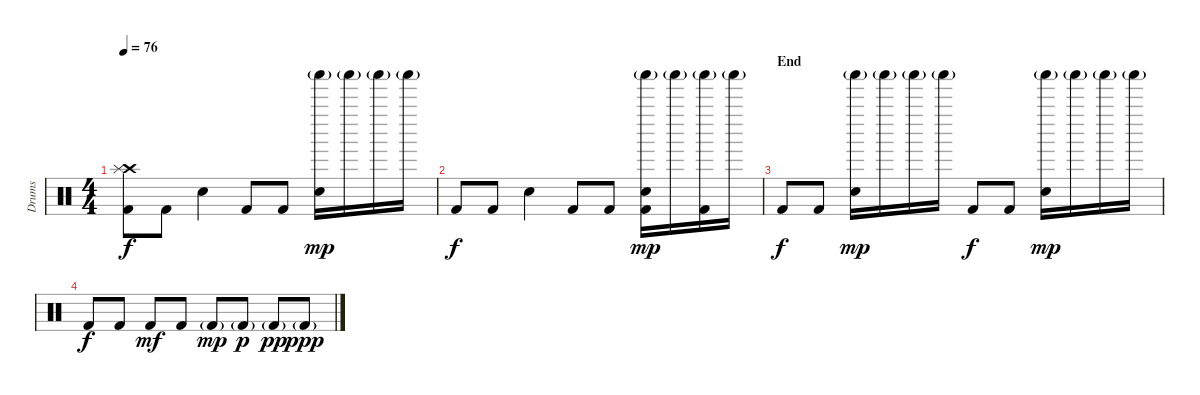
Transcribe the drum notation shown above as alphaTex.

\track ("Drums" "Drums") {instrument percussion}
\staff {score}
\articulation defaults
\ts (4 4)
\tempo 76
\clef neutral
\ks c
("Crash high (hit)" "Splash (hit)" "Kick (hit) 2").8{dy f} "Kick (hit) 2".8 "Electric Snare (hit)".4 "Kick (hit) 2".8 "Kick (hit) 2".8 ("Shaker (hit)"{g} "Electric Snare (hit)").16{dy mp} "Shaker (hit)"{g}.16 "Shaker (hit)"{g}.16 "Shaker (hit)"{g}.16 |
"Kick (hit) 2".8{dy f} "Kick (hit) 2".8 "Electric Snare (hit)".4 "Kick (hit) 2".8 "Kick (hit) 2".8 ("Shaker (hit)"{g} "Electric Snare (hit)" "Kick (hit) 2").16{dy mp} "Shaker (hit)"{g}.16 ("Shaker (hit)"{g} "Kick (hit) 2").16 "Shaker (hit)"{g}.16 |
\section ("" "End")
"Kick (hit) 2".8{dy f} "Kick (hit) 2".8 ("Shaker (hit)"{g} "Electric Snare (hit)").16{dy mp} "Shaker (hit)"{g}.16 "Shaker (hit)"{g}.16 "Shaker (hit)"{g}.16 "Kick (hit) 2".8{dy f} "Kick (hit) 2".8 ("Shaker (hit)"{g} "Electric Snare (hit)").16{dy mp} "Shaker (hit)"{g}.16 "Shaker (hit)"{g}.16 "Shaker (hit)"{g}.16 |
"Kick (hit) 2".8{dy f} "Kick (hit) 2".8 "Kick (hit) 2".8{dy mf} "Kick (hit) 2".8 "Kick (hit) 2"{g}.8{dy mp} "Kick (hit) 2"{g}.8{dy p} "Kick (hit) 2"{g}.8{dy pp} "Kick (hit) 2"{g}.8{dy ppp}
